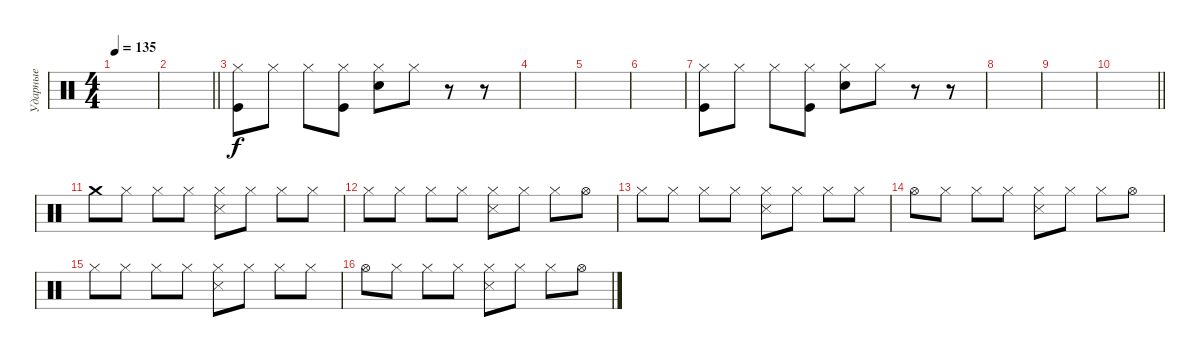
\track ("Ударные" "Ударные") {instrument percussion}
\staff {score}
\articulation defaults
\ts (4 4)
\tempo 135
\clef neutral
\ks c
|
\barLineRight lightlight
|
\section ("" " ")
("Hi-Hat (closed)" "Kick (hit)").8 "Hi-Hat (closed)".8 "Hi-Hat (closed)".8 ("Hi-Hat (closed)" "Kick (hit)").8 ("Hi-Hat (closed)" "Electric Snare (hit)").8 "Hi-Hat (closed)".8 r.8 r.8 |
|
|
|
("Hi-Hat (closed)" "Kick (hit)").8 "Hi-Hat (closed)".8 "Hi-Hat (closed)".8 ("Hi-Hat (closed)" "Kick (hit)").8 ("Hi-Hat (closed)" "Electric Snare (hit)").8 "Hi-Hat (closed)".8 r.8 r.8 |
|
|
\barLineRight lightlight
|
\section ("" " ")
"Crash medium (hit)".8 "Hi-Hat (closed)".8 "Hi-Hat (closed)".8 "Hi-Hat (closed)".8 ("Hi-Hat (closed)" "Snare (side stick) 3").8 "Hi-Hat (closed)".8 "Hi-Hat (closed)".8 "Hi-Hat (closed)".8 |
"Hi-Hat (closed)".8 "Hi-Hat (closed)".8 "Hi-Hat (closed)".8 "Hi-Hat (closed)".8 ("Hi-Hat (closed)" "Snare (side stick) 3").8 "Hi-Hat (closed)".8 "Hi-Hat (closed)".8 "Hi-Hat (open)".8 |
"Hi-Hat (closed)".8 "Hi-Hat (closed)".8 "Hi-Hat (closed)".8 "Hi-Hat (closed)".8 ("Hi-Hat (closed)" "Snare (side stick) 3").8 "Hi-Hat (closed)".8 "Hi-Hat (closed)".8 "Hi-Hat (closed)".8 |
"Hi-Hat (open)".8 "Hi-Hat (closed)".8 "Hi-Hat (closed)".8 "Hi-Hat (closed)".8 ("Hi-Hat (closed)" "Snare (side stick) 3").8 "Hi-Hat (closed)".8 "Hi-Hat (closed)".8 "Hi-Hat (open)".8 |
"Hi-Hat (closed)".8 "Hi-Hat (closed)".8 "Hi-Hat (closed)".8 "Hi-Hat (closed)".8 ("Hi-Hat (closed)" "Snare (side stick) 3").8 "Hi-Hat (closed)".8 "Hi-Hat (closed)".8 "Hi-Hat (closed)".8 |
"Hi-Hat (open)".8 "Hi-Hat (closed)".8 "Hi-Hat (closed)".8 "Hi-Hat (closed)".8 ("Hi-Hat (closed)" "Snare (side stick) 3").8 "Hi-Hat (closed)".8 "Hi-Hat (closed)".8 "Hi-Hat (open)".8
